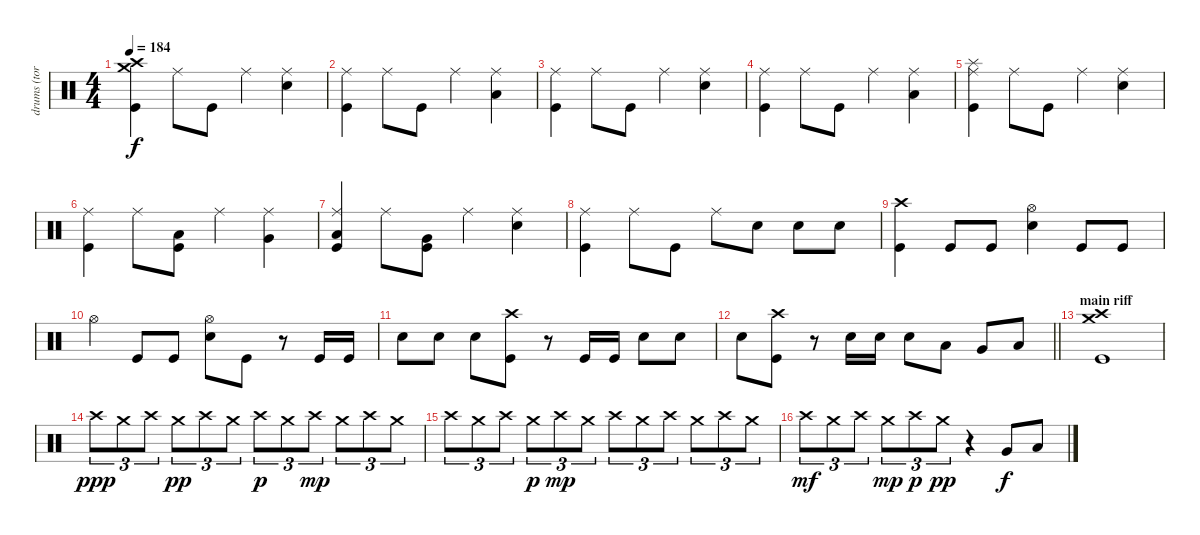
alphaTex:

\track ("drums (tora)" "drums (tor") {instrument percussion}
\staff {score}
\articulation defaults
\ts (4 4)
\tempo 184
\clef neutral
\ks c
("Crash high (hit)" "Crash medium (hit)" "Kick (hit)").4{dy f} "Ride (middle)".8 "Kick (hit)".8 "Ride (middle)".4 ("Ride (middle)" "Snare (hit) 2").4 |
("Ride (middle)" "Kick (hit)").4 "Ride (middle)".8 "Kick (hit)".8 "Ride (middle)".4 ("Ride (middle)" "Low Tom (hit)").4 |
("Ride (middle)" "Kick (hit)").4 "Ride (middle)".8 "Kick (hit)".8 "Ride (middle)".4 ("Ride (middle)" "Snare (hit) 2").4 |
("Ride (middle)" "Kick (hit)").4 "Ride (middle)".8 "Kick (hit)".8 "Ride (middle)".4 ("Ride (middle)" "Low Tom (hit)").4 |
("Splash (hit)" "Ride (middle)" "Kick (hit)").4 "Ride (middle)".8 "Kick (hit)".8 "Ride (middle)".4 ("Ride (middle)" "Snare (hit) 2").4 |
("Ride (middle)" "Kick (hit)").4 "Ride (middle)".8 ("Low Tom (hit)" "Kick (hit)").8 "Ride (middle)".4 ("Ride (middle)" "Very Low Tom (hit)").4 |
("Ride (middle)" "Low Floor Tom (hit)" "Kick (hit)").4 "Ride (middle)".8 ("Very Low Tom (hit)" "Kick (hit)").8 "Ride (middle)".4 ("Ride (middle)" "Snare (hit) 2").4 |
("Ride (middle)" "Kick (hit)").4 "Ride (middle)".8 "Kick (hit)".8 "Ride (middle)".8 "Snare (hit) 2".8 "Snare (hit) 2".8 "Snare (hit) 2".8 |
("Crash high (hit)" "Kick (hit)").4 "Kick (hit)".8 "Kick (hit)".8 ("Hi-Hat (open)" "Snare (hit) 2").4 "Kick (hit)".8 "Kick (hit)".8 |
"Hi-Hat (open)".4 "Kick (hit)".8 "Kick (hit)".8 ("Hi-Hat (open)" "Snare (hit) 2").8 "Kick (hit)".8 r.8 "Kick (hit)".16 "Kick (hit)".16 |
"Snare (hit) 2".8 "Snare (hit) 2".8 "Snare (hit) 2".8 ("Crash high (hit)" "Kick (hit)").8 r.8 "Kick (hit)".16 "Kick (hit)".16 "Snare (hit) 2".8 "Snare (hit) 2".8 |
\barLineRight lightlight "Snare (hit) 2".8
("Crash high (hit)" "Kick (hit)").8 r.8 "Snare (hit) 2".16 "Snare (hit) 2".16 "Snare (hit) 2".8 "Low Tom (hit)".8 "Very Low Tom (hit)".8 "Low Floor Tom (hit)".8 |
\section ("" "main riff")
("Crash high (hit)" "Crash medium (hit)" "Kick (hit)").1 |
"Crash high (hit)".8{tu (3 2) dy ppp} "Crash medium (hit)".8{tu (3 2)} "Crash high (hit)".8{tu (3 2)} "Crash medium (hit)".8{tu (3 2) dy pp} "Crash high (hit)".8{tu (3 2)} "Crash medium (hit)".8{tu (3 2)} "Crash high (hit)".8{tu (3 2) dy p} "Crash medium (hit)".8{tu (3 2)} "Crash high (hit)".8{tu (3 2) dy mp} "Crash medium (hit)".8{tu (3 2)} "Crash high (hit)".8{tu (3 2)} "Crash medium (hit)".8{tu (3 2)} |
"Crash high (hit)".8{tu (3 2)} "Crash medium (hit)".8{tu (3 2)} "Crash high (hit)".8{tu (3 2)} "Crash medium (hit)".8{tu (3 2) dy p} "Crash high (hit)".8{tu (3 2) dy mp} "Crash medium (hit)".8{tu (3 2)} "Crash high (hit)".8{tu (3 2)} "Crash medium (hit)".8{tu (3 2)} "Crash high (hit)".8{tu (3 2)} "Crash medium (hit)".8{tu (3 2)} "Crash high (hit)".8{tu (3 2)} "Crash medium (hit)".8{tu (3 2)} |
"Crash high (hit)".8{tu (3 2) dy mf} "Crash medium (hit)".8{tu (3 2)} "Crash high (hit)".8{tu (3 2)} "Crash medium (hit)".8{tu (3 2) dy mp} "Crash high (hit)".8{tu (3 2) dy p} "Crash medium (hit)".8{tu (3 2) dy pp} r.4 "Very Low Tom (hit)".8{dy f} "Low Floor Tom (hit)".8
